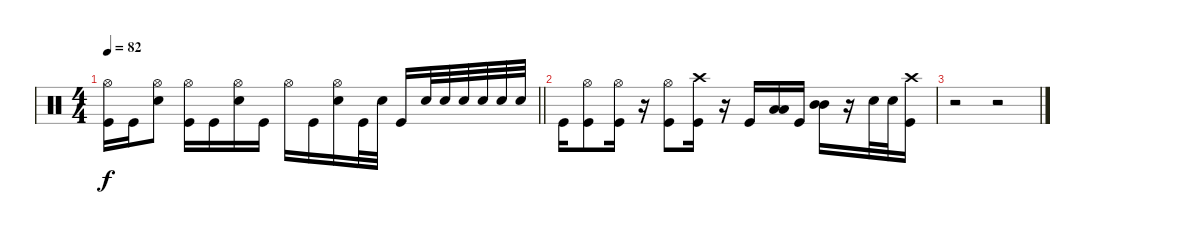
\track "" {instrument percussion}
\staff {score}
\articulation defaults
\ts (4 4)
\tempo 82
\clef neutral
\barLineRight lightlight
\ks c
("Hi-Hat (open)" "Kick (hit)").16{dy f} "Kick (hit)".16 ("Snare (hit) 2" "Hi-Hat (open)").8 ("Kick (hit)" "Hi-Hat (open)").16 "Kick (hit)".16 ("Snare (hit) 2" "Hi-Hat (open)").16 "Kick (hit)".16 "Hi-Hat (open)".16 "Kick (hit)".16 ("Snare (hit) 2" "Hi-Hat (open)").16 "Kick (hit)".32 "Snare (hit) 2".32 "Kick (hit)".16 "Snare (hit) 2".32 "Snare (hit) 2".32 "Snare (hit) 2".32 "Snare (hit) 2".32 "Snare (hit) 2".32 "Snare (hit) 2".32 |
"Kick (hit)".16{txt ""} ("Hi-Hat (open)" "Kick (hit)").8 ("Kick (hit)" "Hi-Hat (open)").16 r.16 ("Hi-Hat (open)" "Kick (hit)").8 ("Crash high (hit)" "Kick (hit)").16 r.16 "Kick (hit)".16 ("Low Tom (hit)" "Low Tom (hit)").16 "Kick (hit)".16 ("Mid Tom (hit)" "Mid Tom (hit)").16 r.16 "Snare (hit) 2".32 "Snare (hit) 2".32 ("Kick (hit)" "Crash high (hit)").16 |
r.2 r.2
